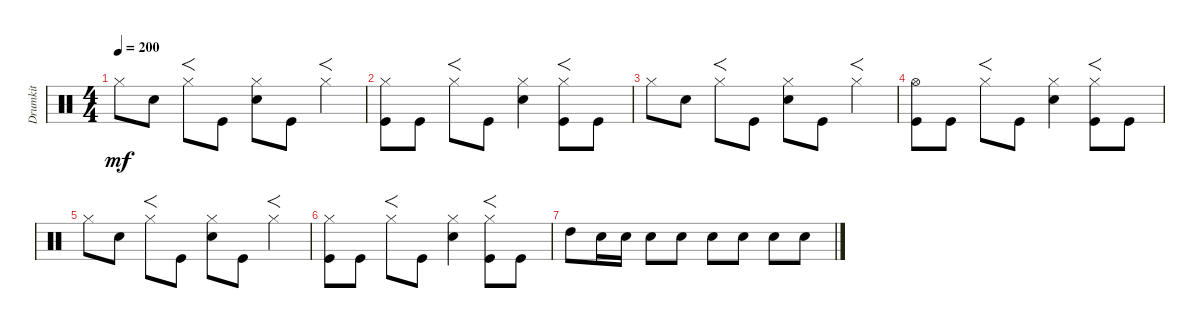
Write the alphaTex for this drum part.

\track ("Drumkit" "Drumkit") {instrument percussion}
\staff {score}
\articulation defaults
\ts (4 4)
\tempo 200
\clef neutral
\ks c "Hi-Hat (closed)".8{dy mf} "Snare (hit) 2".8 "Hi-Hat (closed)".8{f} "Kick (hit)".8
("Hi-Hat (closed)" "Snare (hit) 2").8 "Kick (hit)".8 "Hi-Hat (closed)".4{f} |
("Kick (hit)" "Hi-Hat (closed)").8 "Kick (hit)".8 "Hi-Hat (closed)".8{f} "Kick (hit)".8 ("Hi-Hat (closed)" "Snare (hit) 2").4 ("Hi-Hat (closed)" "Kick (hit)").8{f} "Kick (hit)".8 |
"Hi-Hat (closed)".8 "Snare (hit) 2".8 "Hi-Hat (closed)".8{f} "Kick (hit)".8 ("Hi-Hat (closed)" "Snare (hit) 2").8 "Kick (hit)".8 "Hi-Hat (closed)".4{f} |
("Hi-Hat (open)" "Kick (hit)").8 "Kick (hit)".8 "Hi-Hat (closed)".8{f} "Kick (hit)".8 ("Hi-Hat (closed)" "Snare (hit) 2").4 ("Hi-Hat (closed)" "Kick (hit)").8{f} "Kick (hit)".8 |
"Hi-Hat (closed)".8 "Snare (hit) 2".8 "Hi-Hat (closed)".8{f} "Kick (hit)".8 ("Hi-Hat (closed)" "Snare (hit) 2").8 "Kick (hit)".8 "Hi-Hat (closed)".4{f} |
("Kick (hit)" "Hi-Hat (closed)").8 "Kick (hit)".8 "Hi-Hat (closed)".8{f} "Kick (hit)".8 ("Hi-Hat (closed)" "Snare (hit) 2").4 ("Hi-Hat (closed)" "Kick (hit)").8{f} "Kick (hit)".8 |
"High Tom (hit)".8 "Snare (hit) 2".16 "Snare (hit) 2".16 "Snare (hit) 2".8 "Snare (hit) 2".8 "Snare (hit) 2".8 "Snare (hit) 2".8 "Snare (hit) 2".8 "Snare (hit) 2".8
